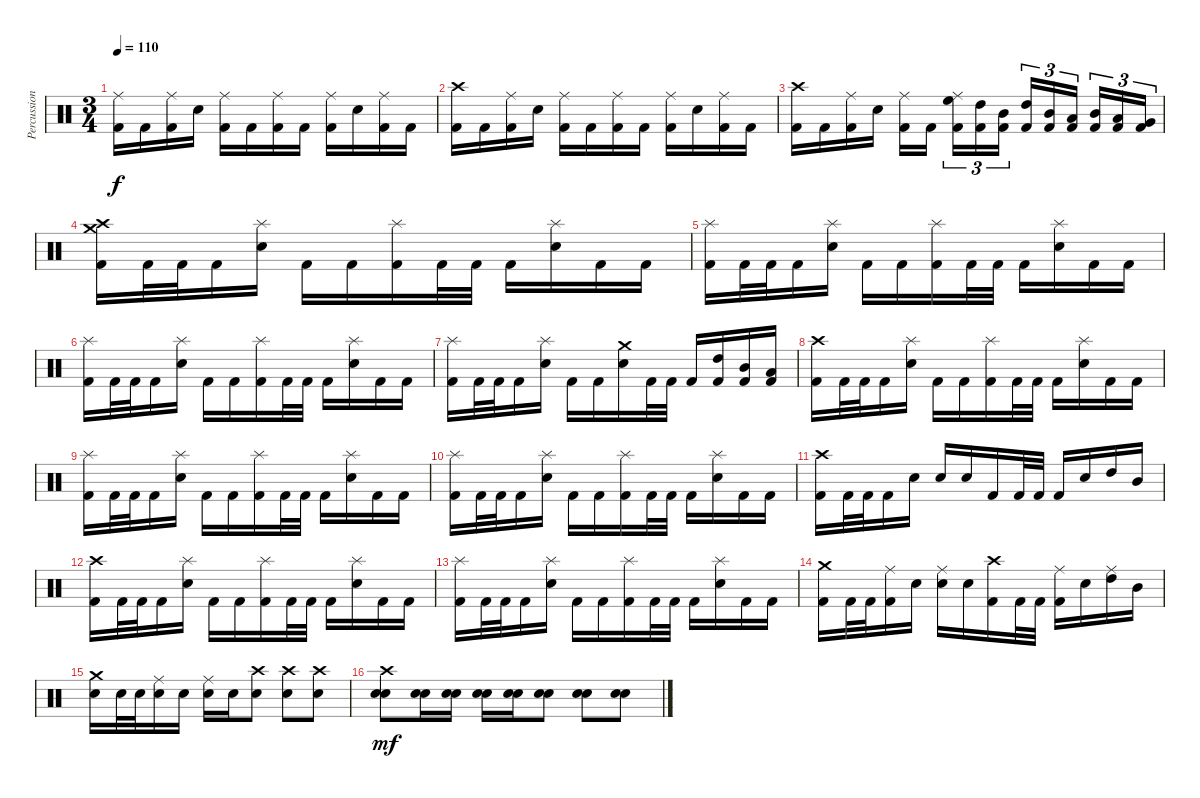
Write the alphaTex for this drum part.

\track ("Percussion" "Percussion") {instrument percussion}
\staff {score}
\articulation defaults
\ts (3 4)
\tempo 110
\clef neutral
\ks c
("Ride (middle)" "Kick (hit) 2").16{dy f} "Kick (hit) 2".16 ("Ride (middle)" "Kick (hit) 2").16 "Electric Snare (hit)".16 ("Ride (middle)" "Kick (hit) 2").16 "Kick (hit) 2".16 ("Ride (middle)" "Kick (hit) 2").16 "Kick (hit) 2".16 ("Ride (middle)" "Kick (hit) 2").16 "Electric Snare (hit)".16 ("Ride (middle)" "Kick (hit) 2").16 "Kick (hit) 2".16 |
("Crash high (hit)" "Kick (hit) 2").16 "Kick (hit) 2".16 ("Ride (middle)" "Kick (hit) 2").16 "Electric Snare (hit)".16 ("Ride (middle)" "Kick (hit) 2").16 "Kick (hit) 2".16 ("Ride (middle)" "Kick (hit) 2").16 "Kick (hit) 2".16 ("Ride (middle)" "Kick (hit) 2").16 "Electric Snare (hit)".16 ("Ride (middle)" "Kick (hit) 2").16 "Kick (hit) 2".16 |
("Crash high (hit)" "Kick (hit) 2").16 "Kick (hit) 2".16 ("Ride (middle)" "Kick (hit) 2").16 "Electric Snare (hit)".16 ("Ride (middle)" "Kick (hit) 2").16 "Kick (hit) 2".16 ("Ride (middle)" "High Floor Tom (hit)" "Kick (hit) 2").16{tu (3 2)} ("High Tom (hit)" "Kick (hit) 2").16{tu (3 2)} ("Mid Tom (hit)" "Kick (hit) 2").16{tu (3 2)} ("High Tom (hit)" "Kick (hit) 2").16{tu (3 2)} ("Mid Tom (hit)" "Kick (hit) 2").16{tu (3 2)} ("Low Tom (hit)" "Kick (hit) 2").16{tu (3 2)} ("Mid Tom (hit)" "Kick (hit) 2").16{tu (3 2)} ("Low Tom (hit)" "Kick (hit) 2").16{tu (3 2)} ("Very Low Tom (hit)" "Kick (hit) 2").16{tu (3 2)} |
("Crash high (hit)" "Crash medium (hit)" "Kick (hit) 2").16 "Kick (hit) 2".32 "Kick (hit) 2".32 "Kick (hit) 2".16 ("Splash (hit)" "Electric Snare (hit)").16 "Kick (hit) 2".16 "Kick (hit) 2".16 ("Splash (hit)" "Kick (hit) 2").16 "Kick (hit) 2".32 "Kick (hit) 2".32 "Kick (hit) 2".16 ("Splash (hit)" "Electric Snare (hit)").16 "Kick (hit) 2".16 "Kick (hit) 2".16 |
("Splash (hit)" "Kick (hit) 2").16 "Kick (hit) 2".32 "Kick (hit) 2".32 "Kick (hit) 2".16 ("Splash (hit)" "Electric Snare (hit)").16 "Kick (hit) 2".16 "Kick (hit) 2".16 ("Splash (hit)" "Kick (hit) 2").16 "Kick (hit) 2".32 "Kick (hit) 2".32 "Kick (hit) 2".16 ("Splash (hit)" "Electric Snare (hit)").16 "Kick (hit) 2".16 "Kick (hit) 2".16 |
("Splash (hit)" "Kick (hit) 2").16 "Kick (hit) 2".32 "Kick (hit) 2".32 "Kick (hit) 2".16 ("Splash (hit)" "Electric Snare (hit)").16 "Kick (hit) 2".16 "Kick (hit) 2".16 ("Splash (hit)" "Kick (hit) 2").16 "Kick (hit) 2".32 "Kick (hit) 2".32 "Kick (hit) 2".16 ("Splash (hit)" "Electric Snare (hit)").16 "Kick (hit) 2".16 "Kick (hit) 2".16 |
("Splash (hit)" "Kick (hit) 2").16 "Kick (hit) 2".32 "Kick (hit) 2".32 "Kick (hit) 2".16 ("Splash (hit)" "Electric Snare (hit)").16 "Kick (hit) 2".16 "Kick (hit) 2".16 ("Crash medium (hit)" "Electric Snare (hit)").16 "Kick (hit) 2".32 "Kick (hit) 2".32 "Kick (hit) 2".16 ("High Tom (hit)" "Kick (hit) 2").16 ("Mid Tom (hit)" "Kick (hit) 2").16 ("Low Tom (hit)" "Kick (hit) 2").16 |
("Crash high (hit)" "Kick (hit) 2").16 "Kick (hit) 2".32 "Kick (hit) 2".32 "Kick (hit) 2".16 ("Splash (hit)" "Electric Snare (hit)").16 "Kick (hit) 2".16 "Kick (hit) 2".16 ("Splash (hit)" "Kick (hit) 2").16 "Kick (hit) 2".32 "Kick (hit) 2".32 "Kick (hit) 2".16 ("Splash (hit)" "Electric Snare (hit)").16 "Kick (hit) 2".16 "Kick (hit) 2".16 |
("Splash (hit)" "Kick (hit) 2").16 "Kick (hit) 2".32 "Kick (hit) 2".32 "Kick (hit) 2".16 ("Splash (hit)" "Electric Snare (hit)").16 "Kick (hit) 2".16 "Kick (hit) 2".16 ("Splash (hit)" "Kick (hit) 2").16 "Kick (hit) 2".32 "Kick (hit) 2".32 "Kick (hit) 2".16 ("Splash (hit)" "Electric Snare (hit)").16 "Kick (hit) 2".16 "Kick (hit) 2".16 |
("Splash (hit)" "Kick (hit) 2").16 "Kick (hit) 2".32 "Kick (hit) 2".32 "Kick (hit) 2".16 ("Splash (hit)" "Electric Snare (hit)").16 "Kick (hit) 2".16 "Kick (hit) 2".16 ("Splash (hit)" "Kick (hit) 2").16 "Kick (hit) 2".32 "Kick (hit) 2".32 "Kick (hit) 2".16 ("Splash (hit)" "Electric Snare (hit)").16 "Kick (hit) 2".16 "Kick (hit) 2".16 |
("Crash high (hit)" "Kick (hit) 2").16 "Kick (hit) 2".32 "Kick (hit) 2".32 "Kick (hit) 2".16 "Electric Snare (hit)".16 "Electric Snare (hit)".16 "Electric Snare (hit)".16 "Kick (hit) 2".16 "Kick (hit) 2".32 "Kick (hit) 2".32 "Kick (hit) 2".16 "Electric Snare (hit)".16 "High Tom (hit)".16 "Mid Tom (hit)".16 |
("Crash high (hit)" "Kick (hit) 2").16 "Kick (hit) 2".32 "Kick (hit) 2".32 "Kick (hit) 2".16 ("Splash (hit)" "Electric Snare (hit)").16 "Kick (hit) 2".16 "Kick (hit) 2".16 ("Splash (hit)" "Kick (hit) 2").16 "Kick (hit) 2".32 "Kick (hit) 2".32 "Kick (hit) 2".16 ("Splash (hit)" "Electric Snare (hit)").16 "Kick (hit) 2".16 "Kick (hit) 2".16 |
("Splash (hit)" "Kick (hit) 2").16 "Kick (hit) 2".32 "Kick (hit) 2".32 "Kick (hit) 2".16 ("Splash (hit)" "Electric Snare (hit)").16 "Kick (hit) 2".16 "Kick (hit) 2".16 ("Splash (hit)" "Kick (hit) 2").16 "Kick (hit) 2".32 "Kick (hit) 2".32 "Kick (hit) 2".16 ("Splash (hit)" "Electric Snare (hit)").16 "Kick (hit) 2".16 "Kick (hit) 2".16 |
("Crash medium (hit)" "Kick (hit) 2").16 "Kick (hit) 2".32 "Kick (hit) 2".32 ("Ride (middle)" "Kick (hit) 2").16 "Electric Snare (hit)".16 ("Ride (middle)" "Electric Snare (hit)").16 "Electric Snare (hit)".16 ("Crash high (hit)" "Kick (hit) 2").16 "Kick (hit) 2".32 "Kick (hit) 2".32 ("Ride (middle)" "Kick (hit) 2").16 "Electric Snare (hit)".16 ("Ride (middle)" "High Tom (hit)").16 "Mid Tom (hit)".16 |
("Crash medium (hit)" "Electric Snare (hit)").16 "Electric Snare (hit)".32 "Electric Snare (hit)".32 ("Ride (middle)" "Electric Snare (hit)").16 "Electric Snare (hit)".16 ("Ride (middle)" "Electric Snare (hit)").16 "Electric Snare (hit)".16 ("Crash high (hit)" "Electric Snare (hit)").8 ("Crash high (hit)" "Electric Snare (hit)").8 ("Crash high (hit)" "Electric Snare (hit)").8 |
("Crash high (hit)" "Snare (hit) 2" "Electric Snare (hit)").8{dy mf} ("Snare (hit) 2" "Electric Snare (hit)").16 ("Snare (hit) 2" "Electric Snare (hit)").16 ("Snare (hit) 2" "Electric Snare (hit)").16 ("Snare (hit) 2" "Electric Snare (hit)").16 ("Snare (hit) 2" "Electric Snare (hit)").8 ("Snare (hit) 2" "Electric Snare (hit)").8 ("Snare (hit) 2" "Electric Snare (hit)").8
